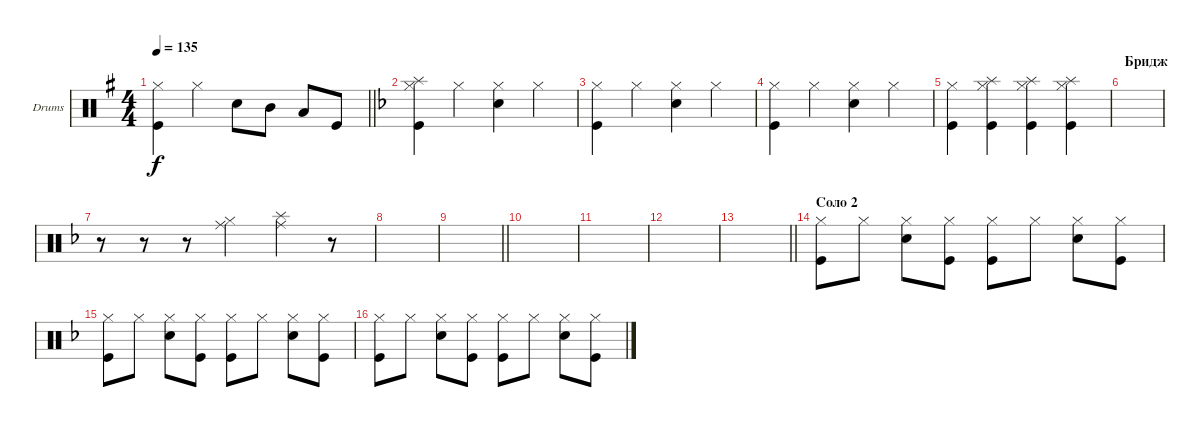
\bracketExtendMode groupsimilarinstruments
\firstSystemTrackNameOrientation horizontal
\otherSystemsTrackNameOrientation horizontal
\track ("Drumkitover" "Drums") {instrument percussion}
\staff {score}
\articulation defaults
\ts (4 4)
\tempo 135
\clef neutral
\scale
0.333333
\barLineRight lightlight
\ks eminor
("Hi-Hat (closed)" "Kick (hit)").4{dy f} "Hi-Hat (closed)".4 "Snare (hit) 2".8 "Mid Tom (hit)".8 "Low Tom (hit)".8 "Kick (hit)".8 |
\scale
0.466667
\ks dminor
("Hi-Hat (closed)" "Kick (hit)" "Splash (hit)").4 "Hi-Hat (closed)".4 ("Hi-Hat (closed)" "Snare (hit) 2").4 "Hi-Hat (closed)".4 |
\scale
0.266667 ("Hi-Hat (closed)" "Kick (hit)").4 "Hi-Hat (closed)".4 ("Hi-Hat (closed)" "Snare (hit) 2").4 "Hi-Hat (closed)".4 |
\scale
0.266667 ("Hi-Hat (closed)" "Kick (hit)").4 "Hi-Hat (closed)".4 ("Hi-Hat (closed)" "Snare (hit) 2").4 "Hi-Hat (closed)".4 |
\scale
0.333333 ("Hi-Hat (closed)" "Kick (hit)").4 ("Hi-Hat (closed)" "Kick (hit)" "Splash (hit)").4 ("Hi-Hat (closed)" "Kick (hit)" "Splash (hit)").4 ("Hi-Hat (closed)" "Kick (hit)" "Splash (hit)").4 |
\section ("" "Бридж")
\scale
0.333333 |
\scale
0.333333 r.8 r.8 r.8 ("Ride (middle)" "Hi-Hat (closed)").4 ("Ride (middle)" "Splash (hit)").4 r.8 |
\scale
0.333333 |
\scale
0.333333
\barLineRight lightlight
|
\scale
0.333333 |
\scale
0.333333 |
\scale
0.333333 |
\scale
0.333333
\barLineRight lightlight
|
\section ("" "Соло 2")
\scale
0.333333 ("Kick (hit)" "Hi-Hat (closed)").8 "Hi-Hat (closed)".8 ("Snare (hit) 2" "Hi-Hat (closed)").8 ("Kick (hit)" "Hi-Hat (closed)").8 ("Kick (hit)" "Hi-Hat (closed)").8 "Hi-Hat (closed)".8 ("Snare (hit) 2" "Hi-Hat (closed)").8 ("Kick (hit)" "Hi-Hat (closed)").8 |
\scale
0.333333 ("Kick (hit)" "Hi-Hat (closed)").8 "Hi-Hat (closed)".8 ("Snare (hit) 2" "Hi-Hat (closed)").8 ("Kick (hit)" "Hi-Hat (closed)").8 ("Kick (hit)" "Hi-Hat (closed)").8 "Hi-Hat (closed)".8 ("Snare (hit) 2" "Hi-Hat (closed)").8 ("Kick (hit)" "Hi-Hat (closed)").8 |
\scale
0.333333 ("Kick (hit)" "Hi-Hat (closed)").8 "Hi-Hat (closed)".8 ("Snare (hit) 2" "Hi-Hat (closed)").8 ("Kick (hit)" "Hi-Hat (closed)").8 ("Kick (hit)" "Hi-Hat (closed)").8 "Hi-Hat (closed)".8 ("Snare (hit) 2" "Hi-Hat (closed)").8 ("Kick (hit)" "Hi-Hat (closed)").8
